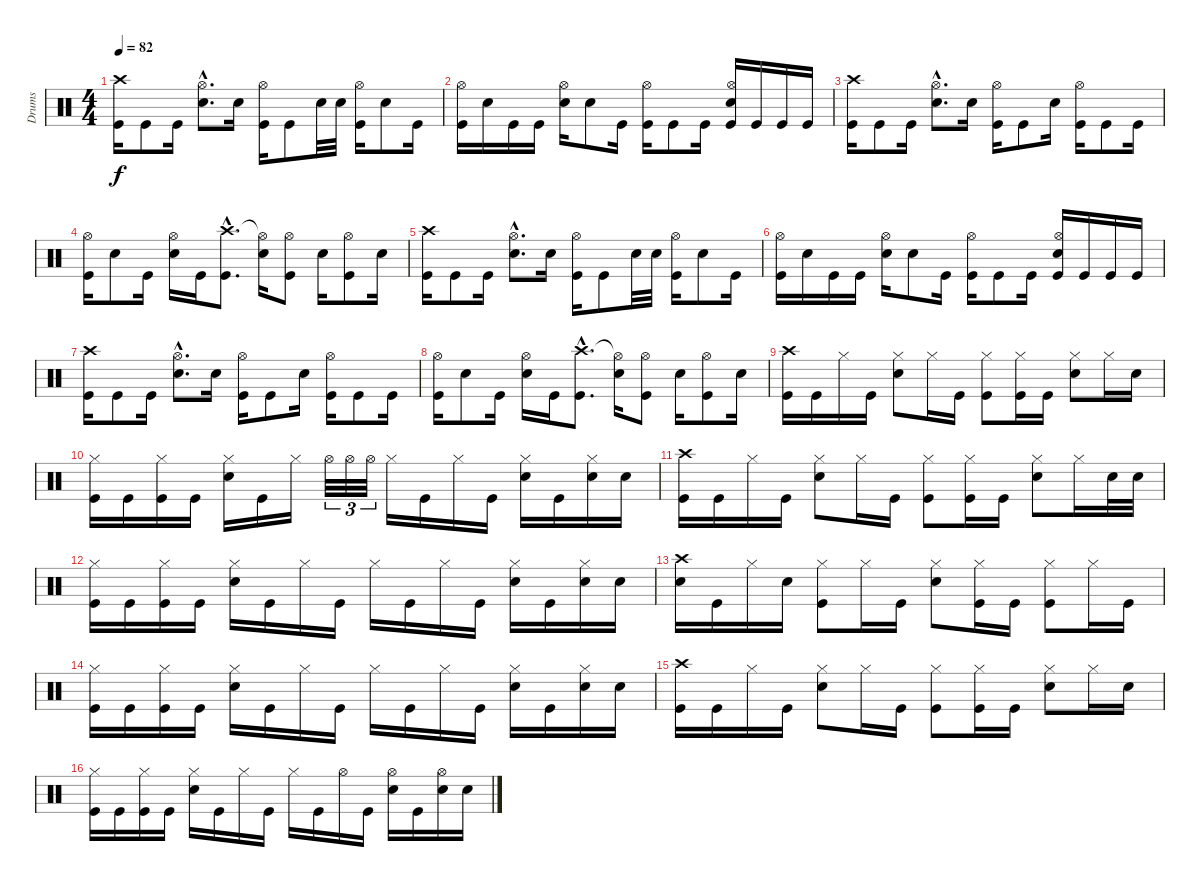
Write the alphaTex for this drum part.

\track ("Drums" "Drums") {instrument percussion}
\staff {score}
\articulation defaults
\ts (4 4)
\tempo 82
\clef neutral
\ks c
("Crash high (hit)" "Kick (hit)").16{dy f} "Kick (hit)".8 "Kick (hit)".16 ("Hi-Hat (open)"{hac} "Electric Snare (hit)"{hac}).8{d} "Electric Snare (hit)".16 ("Hi-Hat (open)" "Kick (hit)").16 "Kick (hit)".8 "Electric Snare (hit)".32 "Electric Snare (hit)".32 ("Hi-Hat (open)" "Kick (hit)").16 "Electric Snare (hit)".8 "Kick (hit)".16 |
("Hi-Hat (open)" "Kick (hit)").16 "Electric Snare (hit)".16 "Kick (hit)".16 "Kick (hit)".16 ("Hi-Hat (open)" "Electric Snare (hit)").16 "Electric Snare (hit)".8 "Kick (hit)".16 ("Hi-Hat (open)" "Kick (hit)").16 "Kick (hit)".8 "Kick (hit)".16 ("Hi-Hat (open)" "Electric Snare (hit)" "Kick (hit)").16 "Kick (hit)".16 "Kick (hit)".16 "Kick (hit)".16 |
("Crash high (hit)" "Kick (hit)").16 "Kick (hit)".8 "Kick (hit)".16 ("Hi-Hat (open)"{hac} "Electric Snare (hit)"{hac}).8{d} "Electric Snare (hit)".16 ("Hi-Hat (open)" "Kick (hit)").16 "Kick (hit)".8 "Electric Snare (hit)".16 ("Hi-Hat (open)" "Kick (hit)").16 "Kick (hit)".8 "Kick (hit)".16 |
("Hi-Hat (open)" "Kick (hit)").16 "Electric Snare (hit)".8 "Kick (hit)".16 ("Hi-Hat (open)" "Electric Snare (hit)").16 "Kick (hit)".16 ("Crash high (hit)"{hac} "Kick (hit)"{hac}).8{d} ("Hi-Hat (open)"{t} "Electric Snare (hit)").16 ("Hi-Hat (open)" "Kick (hit)").8 "Electric Snare (hit)".16 ("Hi-Hat (open)" "Kick (hit)").8 "Electric Snare (hit)".16 |
("Crash high (hit)" "Kick (hit)").16 "Kick (hit)".8 "Kick (hit)".16 ("Hi-Hat (open)"{hac} "Electric Snare (hit)"{hac}).8{d} "Electric Snare (hit)".16 ("Hi-Hat (open)" "Kick (hit)").16 "Kick (hit)".8 "Electric Snare (hit)".32 "Electric Snare (hit)".32 ("Hi-Hat (open)" "Kick (hit)").16 "Electric Snare (hit)".8 "Kick (hit)".16 |
("Hi-Hat (open)" "Kick (hit)").16 "Electric Snare (hit)".16 "Kick (hit)".16 "Kick (hit)".16 ("Hi-Hat (open)" "Electric Snare (hit)").16 "Electric Snare (hit)".8 "Kick (hit)".16 ("Hi-Hat (open)" "Kick (hit)").16 "Kick (hit)".8 "Kick (hit)".16 ("Hi-Hat (open)" "Electric Snare (hit)" "Kick (hit)").16 "Kick (hit)".16 "Kick (hit)".16 "Kick (hit)".16 |
("Crash high (hit)" "Kick (hit)").16 "Kick (hit)".8 "Kick (hit)".16 ("Hi-Hat (open)"{hac} "Electric Snare (hit)"{hac}).8{d} "Electric Snare (hit)".16 ("Hi-Hat (open)" "Kick (hit)").16 "Kick (hit)".8 "Electric Snare (hit)".16 ("Hi-Hat (open)" "Kick (hit)").16 "Kick (hit)".8 "Kick (hit)".16 |
("Hi-Hat (open)" "Kick (hit)").16 "Electric Snare (hit)".8 "Kick (hit)".16 ("Hi-Hat (open)" "Electric Snare (hit)").16 "Kick (hit)".16 ("Crash high (hit)"{hac} "Kick (hit)"{hac}).8{d} ("Hi-Hat (open)"{t} "Electric Snare (hit)").16 ("Hi-Hat (open)" "Kick (hit)").8 "Electric Snare (hit)".16 ("Hi-Hat (open)" "Kick (hit)").8 "Electric Snare (hit)".16 |
("Crash high (hit)" "Kick (hit)").16 "Kick (hit)".16 "Hi-Hat (closed)".16 "Kick (hit)".16 ("Hi-Hat (closed)" "Electric Snare (hit)").8 "Hi-Hat (closed)".16 "Kick (hit)".16 ("Hi-Hat (closed)" "Kick (hit)").8 ("Hi-Hat (closed)" "Kick (hit)").16 "Kick (hit)".16 ("Hi-Hat (closed)" "Electric Snare (hit)").8 "Hi-Hat (closed)".16 "Electric Snare (hit)".16 |
("Hi-Hat (closed)" "Kick (hit)").16 "Kick (hit)".16 ("Hi-Hat (closed)" "Kick (hit)").16 "Kick (hit)".16 ("Hi-Hat (closed)" "Electric Snare (hit)").16 "Kick (hit)".16 "Hi-Hat (closed)".16 "Hi-Hat (open)".32{tu (3 2)} "Hi-Hat (open)".32{tu (3 2)} "Hi-Hat (open)".32{tu (3 2)} "Hi-Hat (closed)".16 "Kick (hit)".16 "Hi-Hat (closed)".16 "Kick (hit)".16 ("Hi-Hat (closed)" "Electric Snare (hit)").16 "Kick (hit)".16 ("Hi-Hat (closed)" "Electric Snare (hit)").16 "Electric Snare (hit)".16 |
("Crash high (hit)" "Kick (hit)").16 "Kick (hit)".16 "Hi-Hat (closed)".16 "Kick (hit)".16 ("Hi-Hat (closed)" "Electric Snare (hit)").8 "Hi-Hat (closed)".16 "Kick (hit)".16 ("Hi-Hat (closed)" "Kick (hit)").8 ("Hi-Hat (closed)" "Kick (hit)").16 "Kick (hit)".16 ("Hi-Hat (closed)" "Electric Snare (hit)").8 "Hi-Hat (closed)".16 "Electric Snare (hit)".32 "Electric Snare (hit)".32 |
("Hi-Hat (closed)" "Kick (hit)").16 "Kick (hit)".16 ("Hi-Hat (closed)" "Kick (hit)").16 "Kick (hit)".16 ("Hi-Hat (closed)" "Electric Snare (hit)").16 "Kick (hit)".16 "Hi-Hat (closed)".16 "Kick (hit)".16 "Hi-Hat (closed)".16 "Kick (hit)".16 "Hi-Hat (closed)".16 "Kick (hit)".16 ("Hi-Hat (closed)" "Electric Snare (hit)").16 "Kick (hit)".16 ("Hi-Hat (closed)" "Electric Snare (hit)").16 "Electric Snare (hit)".16 |
("Crash high (hit)" "Electric Snare (hit)").16 "Kick (hit)".16 "Hi-Hat (closed)".16 "Electric Snare (hit)".16 ("Hi-Hat (closed)" "Kick (hit)").8 "Hi-Hat (closed)".16 "Kick (hit)".16 ("Hi-Hat (closed)" "Electric Snare (hit)").8 ("Hi-Hat (closed)" "Kick (hit)").16 "Kick (hit)".16 ("Hi-Hat (closed)" "Kick (hit)").8 "Hi-Hat (closed)".16 "Kick (hit)".16 |
("Hi-Hat (closed)" "Kick (hit)").16 "Kick (hit)".16 ("Hi-Hat (closed)" "Kick (hit)").16 "Kick (hit)".16 ("Hi-Hat (closed)" "Electric Snare (hit)").16 "Kick (hit)".16 "Hi-Hat (closed)".16 "Kick (hit)".16 "Hi-Hat (closed)".16 "Kick (hit)".16 "Hi-Hat (closed)".16 "Kick (hit)".16 ("Hi-Hat (closed)" "Electric Snare (hit)").16 "Kick (hit)".16 ("Hi-Hat (closed)" "Electric Snare (hit)").16 "Electric Snare (hit)".16 |
("Crash high (hit)" "Kick (hit)").16 "Kick (hit)".16 "Hi-Hat (closed)".16 "Kick (hit)".16 ("Hi-Hat (closed)" "Electric Snare (hit)").8 "Hi-Hat (closed)".16 "Kick (hit)".16 ("Hi-Hat (closed)" "Kick (hit)").8 ("Hi-Hat (closed)" "Kick (hit)").16 "Kick (hit)".16 ("Hi-Hat (closed)" "Electric Snare (hit)").8 "Hi-Hat (closed)".16 "Electric Snare (hit)".16 |
("Hi-Hat (closed)" "Kick (hit)").16 "Kick (hit)".16 ("Hi-Hat (closed)" "Kick (hit)").16 "Kick (hit)".16 ("Hi-Hat (closed)" "Electric Snare (hit)").16 "Kick (hit)".16 "Hi-Hat (closed)".16 "Kick (hit)".16 "Hi-Hat (closed)".16 "Kick (hit)".16 "Hi-Hat (open)".16 "Kick (hit)".16 ("Hi-Hat (open)" "Electric Snare (hit)").16 "Kick (hit)".16 ("Hi-Hat (open)" "Electric Snare (hit)").16 "Electric Snare (hit)".16
